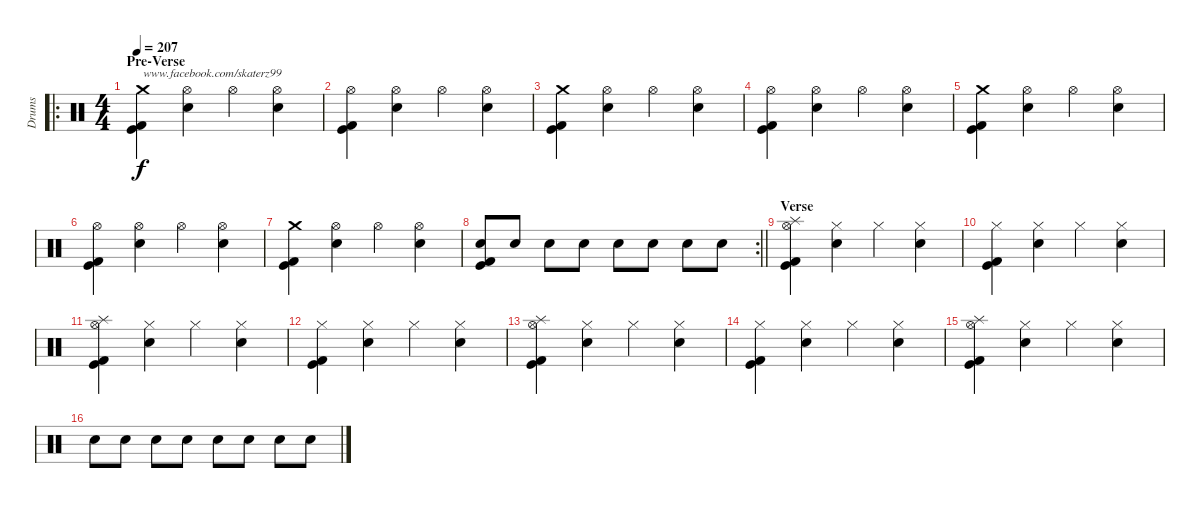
\track ("Drums" "Drums") {instrument percussion}
\staff {score}
\articulation defaults
\ro
\ts (4 4)
\section ("" "Pre-Verse")
\tempo 207
\clef neutral
\ks c
("Crash medium (hit)" "Kick (hit)" "Kick (hit) 2").4{txt "www.facebook.com/skaterz99" dy f} ("Hi-Hat (open)" "Electric Snare (hit)").4 "Hi-Hat (open)".4 ("Hi-Hat (open)" "Electric Snare (hit)").4 |
("Hi-Hat (open)" "Kick (hit)" "Kick (hit) 2").4 ("Hi-Hat (open)" "Electric Snare (hit)").4 "Hi-Hat (open)".4 ("Hi-Hat (open)" "Electric Snare (hit)").4 |
("Crash medium (hit)" "Kick (hit)" "Kick (hit) 2").4 ("Hi-Hat (open)" "Electric Snare (hit)").4 "Hi-Hat (open)".4 ("Hi-Hat (open)" "Electric Snare (hit)").4 |
("Hi-Hat (open)" "Kick (hit)" "Kick (hit) 2").4 ("Hi-Hat (open)" "Electric Snare (hit)").4 "Hi-Hat (open)".4 ("Hi-Hat (open)" "Electric Snare (hit)").4 |
("Crash medium (hit)" "Kick (hit)" "Kick (hit) 2").4 ("Hi-Hat (open)" "Electric Snare (hit)").4 "Hi-Hat (open)".4 ("Hi-Hat (open)" "Electric Snare (hit)").4 |
("Hi-Hat (open)" "Kick (hit)" "Kick (hit) 2").4 ("Hi-Hat (open)" "Electric Snare (hit)").4 "Hi-Hat (open)".4 ("Hi-Hat (open)" "Electric Snare (hit)").4 |
("Crash medium (hit)" "Kick (hit)" "Kick (hit) 2").4 ("Hi-Hat (open)" "Electric Snare (hit)").4 "Hi-Hat (open)".4 ("Hi-Hat (open)" "Electric Snare (hit)").4 |
\rc 2
\barLineRight lightlight
("Electric Snare (hit)" "Kick (hit)" "Kick (hit) 2").8 "Electric Snare (hit)".8 "Electric Snare (hit)".8 "Electric Snare (hit)".8 "Electric Snare (hit)".8 "Electric Snare (hit)".8 "Electric Snare (hit)".8 "Electric Snare (hit)".8 |
\section ("" "Verse")
("Splash (hit)" "Hi-Hat (open)" "Kick (hit)" "Kick (hit) 2").4 ("Hi-Hat (closed)" "Electric Snare (hit)").4 "Hi-Hat (closed)".4 ("Hi-Hat (closed)" "Electric Snare (hit)").4 |
("Hi-Hat (closed)" "Kick (hit)" "Kick (hit) 2").4 ("Hi-Hat (closed)" "Electric Snare (hit)").4 "Hi-Hat (closed)".4 ("Hi-Hat (closed)" "Electric Snare (hit)").4 |
("Splash (hit)" "Hi-Hat (open)" "Kick (hit)" "Kick (hit) 2").4 ("Hi-Hat (closed)" "Electric Snare (hit)").4 "Hi-Hat (closed)".4 ("Hi-Hat (closed)" "Electric Snare (hit)").4 |
("Hi-Hat (closed)" "Kick (hit)" "Kick (hit) 2").4 ("Hi-Hat (closed)" "Electric Snare (hit)").4 "Hi-Hat (closed)".4 ("Hi-Hat (closed)" "Electric Snare (hit)").4 |
("Splash (hit)" "Hi-Hat (open)" "Kick (hit)" "Kick (hit) 2").4 ("Hi-Hat (closed)" "Electric Snare (hit)").4 "Hi-Hat (closed)".4 ("Hi-Hat (closed)" "Electric Snare (hit)").4 |
("Hi-Hat (closed)" "Kick (hit)" "Kick (hit) 2").4 ("Hi-Hat (closed)" "Electric Snare (hit)").4 "Hi-Hat (closed)".4 ("Hi-Hat (closed)" "Electric Snare (hit)").4 |
("Splash (hit)" "Hi-Hat (open)" "Kick (hit)" "Kick (hit) 2").4 ("Hi-Hat (closed)" "Electric Snare (hit)").4 "Hi-Hat (closed)".4 ("Hi-Hat (closed)" "Electric Snare (hit)").4 |
"Electric Snare (hit)".8 "Electric Snare (hit)".8 "Electric Snare (hit)".8 "Electric Snare (hit)".8 "Electric Snare (hit)".8 "Electric Snare (hit)".8 "Electric Snare (hit)".8 "Electric Snare (hit)".8
